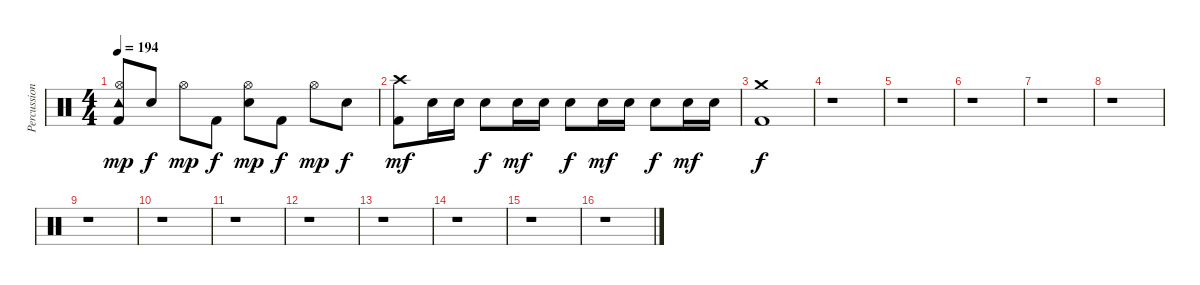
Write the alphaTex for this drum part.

\track ("Percussions" "Percussion") {instrument percussion}
\staff {score}
\articulation defaults
\ts (4 4)
\tempo 194
\clef neutral
\ks c
("Kick (hit) 2" "Hi-Hat (open)" "Tambourine (hit)").8{dy mp} "Electric Snare (hit)".8{dy f} "Hi-Hat (open)".8{dy mp} "Kick (hit) 2".8{dy f} ("Electric Snare (hit)" "Hi-Hat (open)").8{dy mp} "Kick (hit) 2".8{dy f} "Hi-Hat (open)".8{dy mp} "Electric Snare (hit)".8{dy f} |
("Kick (hit) 2" "Crash high (hit)").8{dy mf} "Electric Snare (hit)".16 "Electric Snare (hit)".16 "Electric Snare (hit)".8{dy f} "Electric Snare (hit)".16{dy mf} "Electric Snare (hit)".16 "Electric Snare (hit)".8{dy f} "Electric Snare (hit)".16{dy mf} "Electric Snare (hit)".16 "Electric Snare (hit)".8{dy f} "Electric Snare (hit)".16{dy mf} "Electric Snare (hit)".16 |
("Kick (hit) 2" "Crash medium (hit)").1{dy f} |
r.1 |
r.1 |
r.1 |
r.1 |
r.1 |
r.1 |
r.1 |
r.1 |
r.1 |
r.1 |
r.1 |
r.1 |
r.1
